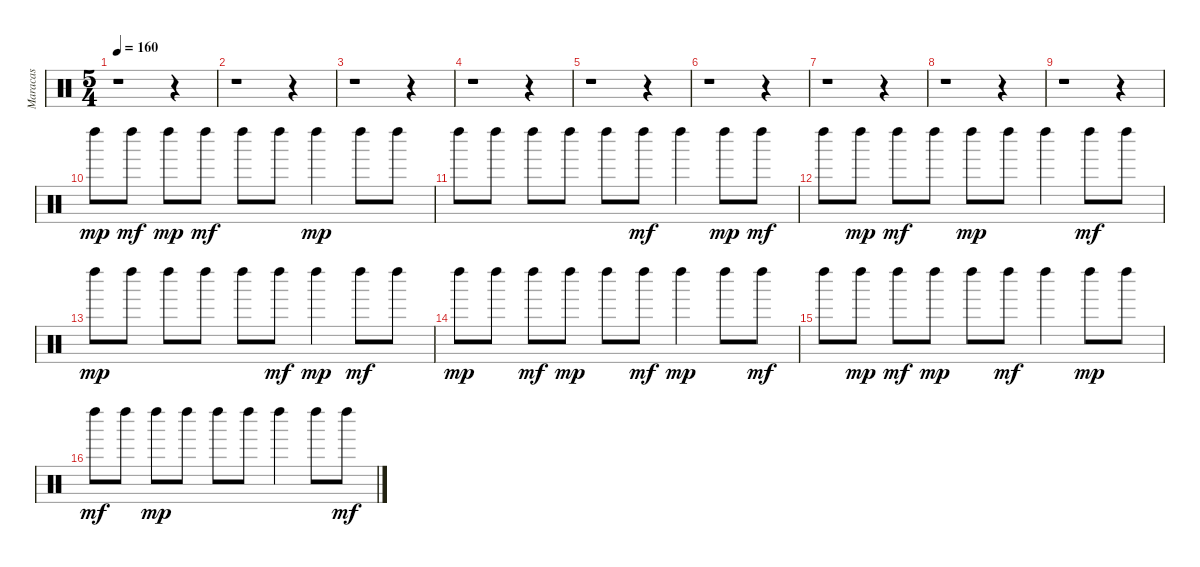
\track ("Maracas" "Maracas") {instrument percussion}
\staff {score}
\articulation defaults
\ts (5 4)
\tempo 160
\clef neutral
\ks c
r.1{dy mp} r.4 |
r.1 r.4 |
r.1 r.4 |
r.1 r.4 |
r.1 r.4 |
r.1 r.4 |
r.1 r.4 |
r.1 r.4 |
r.1 r.4 |
"Left Maraca (hit)".8 "Left Maraca (hit)".8{dy mf} "Left Maraca (hit)".8{dy mp} "Left Maraca (hit)".8{dy mf} "Left Maraca (hit)".8 "Left Maraca (hit)".8 "Left Maraca (hit)".4{dy mp} "Left Maraca (hit)".8 "Left Maraca (hit)".8 |
"Left Maraca (hit)".8 "Left Maraca (hit)".8 "Left Maraca (hit)".8 "Left Maraca (hit)".8 "Left Maraca (hit)".8 "Left Maraca (hit)".8{dy mf} "Left Maraca (hit)".4 "Left Maraca (hit)".8{dy mp} "Left Maraca (hit)".8{dy mf} |
"Left Maraca (hit)".8 "Left Maraca (hit)".8{dy mp} "Left Maraca (hit)".8{dy mf} "Left Maraca (hit)".8 "Left Maraca (hit)".8{dy mp} "Left Maraca (hit)".8 "Left Maraca (hit)".4 "Left Maraca (hit)".8{dy mf} "Left Maraca (hit)".8 |
"Left Maraca (hit)".8{dy mp} "Left Maraca (hit)".8 "Left Maraca (hit)".8 "Left Maraca (hit)".8 "Left Maraca (hit)".8 "Left Maraca (hit)".8{dy mf} "Left Maraca (hit)".4{dy mp} "Left Maraca (hit)".8{dy mf} "Left Maraca (hit)".8 |
"Left Maraca (hit)".8{dy mp} "Left Maraca (hit)".8 "Left Maraca (hit)".8{dy mf} "Left Maraca (hit)".8{dy mp} "Left Maraca (hit)".8 "Left Maraca (hit)".8{dy mf} "Left Maraca (hit)".4{dy mp} "Left Maraca (hit)".8 "Left Maraca (hit)".8{dy mf} |
"Left Maraca (hit)".8 "Left Maraca (hit)".8{dy mp} "Left Maraca (hit)".8{dy mf} "Left Maraca (hit)".8{dy mp} "Left Maraca (hit)".8 "Left Maraca (hit)".8{dy mf} "Left Maraca (hit)".4 "Left Maraca (hit)".8{dy mp} "Left Maraca (hit)".8 |
"Left Maraca (hit)".8{dy mf} "Left Maraca (hit)".8 "Left Maraca (hit)".8{dy mp} "Left Maraca (hit)".8 "Left Maraca (hit)".8 "Left Maraca (hit)".8 "Left Maraca (hit)".4 "Left Maraca (hit)".8 "Left Maraca (hit)".8{dy mf}
